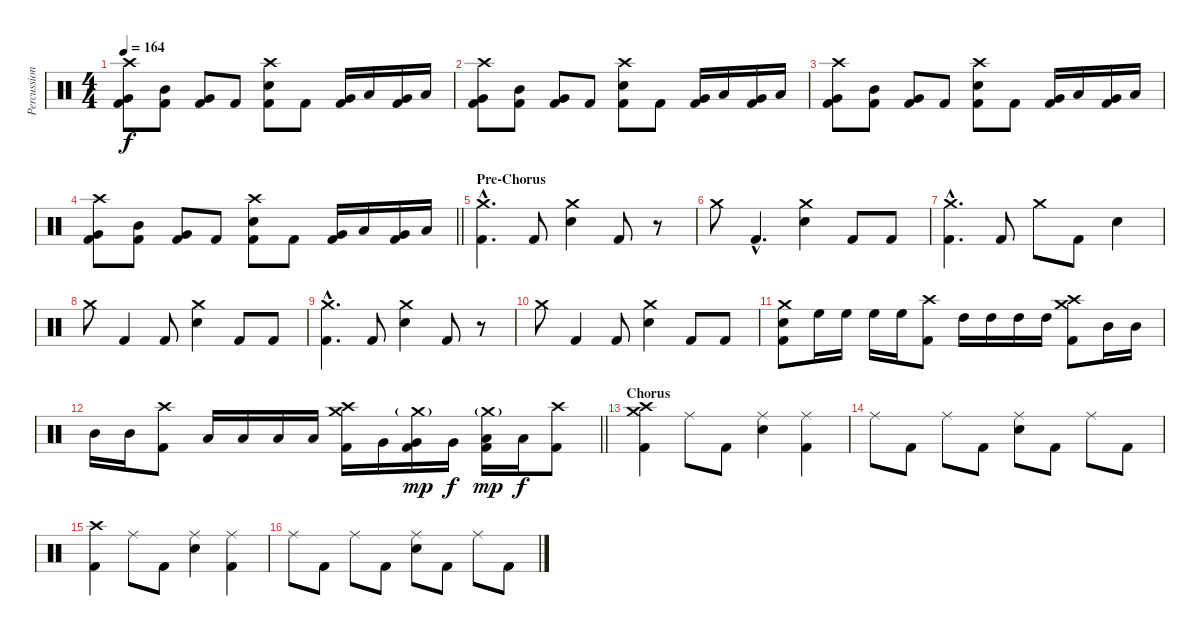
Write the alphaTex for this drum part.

\track ("Percussions" "Percussion") {instrument percussion}
\staff {score}
\articulation defaults
\ts (4 4)
\tempo 164
\clef neutral
\ks c
("Crash high (hit)" "Very Low Tom (hit)" "Kick (hit) 2").8{dy f} ("Mid Tom (hit)" "Kick (hit) 2").8 ("Very Low Tom (hit)" "Kick (hit) 2").8 "Kick (hit) 2".8 ("Crash high (hit)" "Snare (hit) 2" "Kick (hit) 2").8 "Kick (hit) 2".8 ("Very Low Tom (hit)" "Kick (hit) 2").16 "Low Tom (hit)".16 ("Very Low Tom (hit)" "Kick (hit) 2").16 "Low Tom (hit)".16 |
("Crash high (hit)" "Very Low Tom (hit)" "Kick (hit) 2").8 ("Mid Tom (hit)" "Kick (hit) 2").8 ("Very Low Tom (hit)" "Kick (hit) 2").8 "Kick (hit) 2".8 ("Crash high (hit)" "Snare (hit) 2" "Kick (hit) 2").8 "Kick (hit) 2".8 ("Very Low Tom (hit)" "Kick (hit) 2").16 "Low Tom (hit)".16 ("Very Low Tom (hit)" "Kick (hit) 2").16 "Low Tom (hit)".16 |
("Crash high (hit)" "Very Low Tom (hit)" "Kick (hit) 2").8 ("Mid Tom (hit)" "Kick (hit) 2").8 ("Very Low Tom (hit)" "Kick (hit) 2").8 "Kick (hit) 2".8 ("Crash high (hit)" "Snare (hit) 2" "Kick (hit) 2").8 "Kick (hit) 2".8 ("Very Low Tom (hit)" "Kick (hit) 2").16 "Low Tom (hit)".16 ("Very Low Tom (hit)" "Kick (hit) 2").16 "Low Tom (hit)".16 |
\barLineRight lightlight
("Crash high (hit)" "Very Low Tom (hit)" "Kick (hit) 2").8 ("Mid Tom (hit)" "Kick (hit) 2").8 ("Very Low Tom (hit)" "Kick (hit) 2").8 "Kick (hit) 2".8 ("Crash high (hit)" "Snare (hit) 2" "Kick (hit) 2").8 "Kick (hit) 2".8 ("Very Low Tom (hit)" "Kick (hit) 2").16 "Low Tom (hit)".16 ("Very Low Tom (hit)" "Kick (hit) 2").16 "Low Tom (hit)".16 |
\section ("" "Pre-Chorus")
("Crash medium (hit)"{hac} "Kick (hit) 2"{hac}).4{d} "Kick (hit) 2".8 ("Crash medium (hit)" "Snare (hit) 2").4 "Kick (hit) 2".8 r.8 |
"Crash medium (hit)".8 "Kick (hit) 2"{hac}.4{d} ("Crash medium (hit)" "Snare (hit) 2").4 "Kick (hit) 2".8 "Kick (hit) 2".8 |
("Crash medium (hit)"{hac} "Kick (hit) 2"{hac}).4{d} "Kick (hit) 2".8 "Crash medium (hit)".8 "Kick (hit) 2".8 "Snare (hit) 2".4 |
"Crash medium (hit)".8 "Kick (hit) 2".4 "Kick (hit) 2".8 ("Crash medium (hit)" "Snare (hit) 2").4 "Kick (hit) 2".8 "Kick (hit) 2".8 |
("Crash medium (hit)"{hac} "Kick (hit) 2"{hac}).4{d} "Kick (hit) 2".8 ("Crash medium (hit)" "Snare (hit) 2").4 "Kick (hit) 2".8 r.8 |
"Crash medium (hit)".8 "Kick (hit) 2".4 "Kick (hit) 2".8 ("Crash medium (hit)" "Snare (hit) 2").4 "Kick (hit) 2".8 "Kick (hit) 2".8 |
("Crash medium (hit)" "Snare (hit) 2" "Kick (hit) 2").8 "High Floor Tom (hit)".16 "High Floor Tom (hit)".16 "High Floor Tom (hit)".16 "High Floor Tom (hit)".16 ("Crash high (hit)" "Kick (hit) 2").8 "High Tom (hit)".16 "High Tom (hit)".16 "High Tom (hit)".16 "High Tom (hit)".16 ("Crash medium (hit)" "Crash high (hit)" "Kick (hit) 2").8 "Mid Tom (hit)".16 "Mid Tom (hit)".16 |
\barLineRight lightlight "Mid Tom (hit)".16 "Mid Tom (hit)".16
("Crash high (hit)" "Kick (hit) 2").8 "Low Tom (hit)".16 "Low Tom (hit)".16 "Low Tom (hit)".16 "Low Tom (hit)".16 ("Crash medium (hit)" "Crash high (hit)" "Kick (hit) 2").16 "Very Low Tom (hit)".16 ("Crash medium (hit)"{g} "Very Low Tom (hit)" "Kick (hit) 2").16{dy mp} "Very Low Tom (hit)".16{dy f} ("Crash medium (hit)"{g} "Low Floor Tom (hit)" "Kick (hit) 2").16{dy mp} "Low Floor Tom (hit)".16{dy f} ("Crash high (hit)" "Kick (hit) 2").8 |
\section ("" "Chorus")
("Crash medium (hit)" "Crash high (hit)" "Kick (hit) 2").4 "Ride (middle)".8 "Kick (hit) 2".8 ("Ride (middle)" "Snare (hit) 2").4 ("Ride (middle)" "Kick (hit) 2").4 |
"Ride (middle)".8 "Kick (hit) 2".8 "Ride (middle)".8 "Kick (hit) 2".8 ("Ride (middle)" "Snare (hit) 2").8 "Kick (hit) 2".8 "Ride (middle)".8 "Kick (hit) 2".8 |
("Crash high (hit)" "Kick (hit) 2").4 "Ride (middle)".8 "Kick (hit) 2".8 ("Ride (middle)" "Snare (hit) 2").4 ("Ride (middle)" "Kick (hit) 2").4 |
"Ride (middle)".8 "Kick (hit) 2".8 "Ride (middle)".8 "Kick (hit) 2".8 ("Ride (middle)" "Snare (hit) 2").8 "Kick (hit) 2".8 "Ride (middle)".8 "Kick (hit) 2".8
